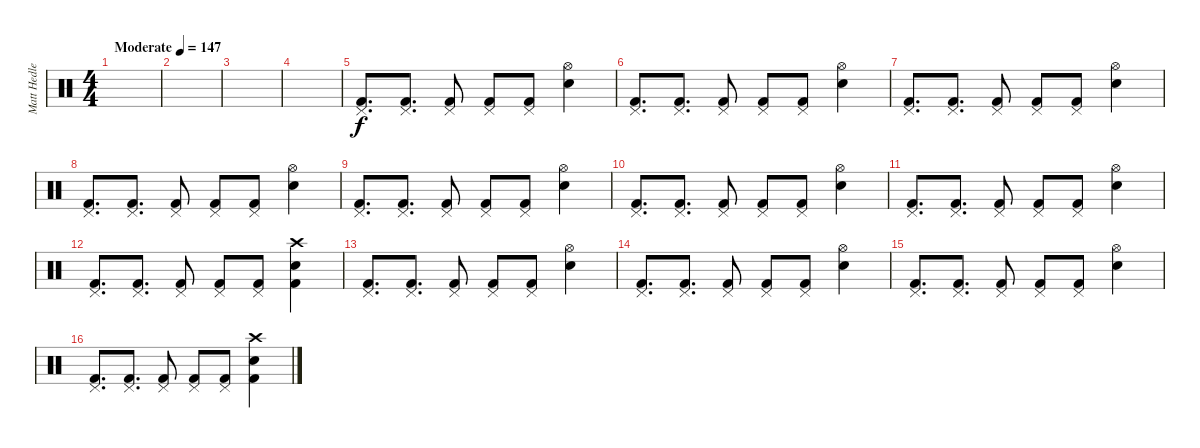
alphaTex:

\track ("Matt Hedlers" "Matt Hedle") {instrument percussion}
\staff {score}
\articulation defaults
\ts (4 4)
\tempo (147 "Moderate")
\clef neutral
\ks c
|
|
|
|
("Pedal Hi-Hat (hit)" "Kick (hit) 2").8{d} ("Pedal Hi-Hat (hit)" "Kick (hit) 2").8{d} ("Pedal Hi-Hat (hit)" "Kick (hit) 2").8 ("Pedal Hi-Hat (hit)" "Kick (hit) 2").8 ("Pedal Hi-Hat (hit)" "Kick (hit) 2").8 ("Hi-Hat (open)" "Snare (hit) 2").4 |
("Pedal Hi-Hat (hit)" "Kick (hit) 2").8{d} ("Pedal Hi-Hat (hit)" "Kick (hit) 2").8{d} ("Pedal Hi-Hat (hit)" "Kick (hit) 2").8 ("Pedal Hi-Hat (hit)" "Kick (hit) 2").8 ("Pedal Hi-Hat (hit)" "Kick (hit) 2").8 ("Hi-Hat (open)" "Snare (hit) 2").4 |
("Pedal Hi-Hat (hit)" "Kick (hit) 2").8{d} ("Pedal Hi-Hat (hit)" "Kick (hit) 2").8{d} ("Pedal Hi-Hat (hit)" "Kick (hit) 2").8 ("Pedal Hi-Hat (hit)" "Kick (hit) 2").8 ("Pedal Hi-Hat (hit)" "Kick (hit) 2").8 ("Hi-Hat (open)" "Snare (hit) 2").4 |
("Pedal Hi-Hat (hit)" "Kick (hit) 2").8{d} ("Pedal Hi-Hat (hit)" "Kick (hit) 2").8{d} ("Pedal Hi-Hat (hit)" "Kick (hit) 2").8 ("Pedal Hi-Hat (hit)" "Kick (hit) 2").8 ("Pedal Hi-Hat (hit)" "Kick (hit) 2").8 ("Hi-Hat (open)" "Snare (hit) 2").4 |
("Pedal Hi-Hat (hit)" "Kick (hit) 2").8{d} ("Pedal Hi-Hat (hit)" "Kick (hit) 2").8{d} ("Pedal Hi-Hat (hit)" "Kick (hit) 2").8 ("Pedal Hi-Hat (hit)" "Kick (hit) 2").8 ("Pedal Hi-Hat (hit)" "Kick (hit) 2").8 ("Hi-Hat (open)" "Snare (hit) 2").4 |
("Pedal Hi-Hat (hit)" "Kick (hit) 2").8{d} ("Pedal Hi-Hat (hit)" "Kick (hit) 2").8{d} ("Pedal Hi-Hat (hit)" "Kick (hit) 2").8 ("Pedal Hi-Hat (hit)" "Kick (hit) 2").8 ("Pedal Hi-Hat (hit)" "Kick (hit) 2").8 ("Hi-Hat (open)" "Snare (hit) 2").4 |
("Pedal Hi-Hat (hit)" "Kick (hit) 2").8{d} ("Pedal Hi-Hat (hit)" "Kick (hit) 2").8{d} ("Pedal Hi-Hat (hit)" "Kick (hit) 2").8 ("Pedal Hi-Hat (hit)" "Kick (hit) 2").8 ("Pedal Hi-Hat (hit)" "Kick (hit) 2").8 ("Hi-Hat (open)" "Snare (hit) 2").4 |
("Pedal Hi-Hat (hit)" "Kick (hit) 2").8{d} ("Pedal Hi-Hat (hit)" "Kick (hit) 2").8{d} ("Pedal Hi-Hat (hit)" "Kick (hit) 2").8 ("Pedal Hi-Hat (hit)" "Kick (hit) 2").8 ("Pedal Hi-Hat (hit)" "Kick (hit) 2").8 ("Crash high (hit)" "Snare (hit) 2" "Kick (hit) 2").4 |
("Pedal Hi-Hat (hit)" "Kick (hit) 2").8{d} ("Pedal Hi-Hat (hit)" "Kick (hit) 2").8{d} ("Pedal Hi-Hat (hit)" "Kick (hit) 2").8 ("Pedal Hi-Hat (hit)" "Kick (hit) 2").8 ("Pedal Hi-Hat (hit)" "Kick (hit) 2").8 ("Hi-Hat (open)" "Snare (hit) 2").4 |
("Pedal Hi-Hat (hit)" "Kick (hit) 2").8{d} ("Pedal Hi-Hat (hit)" "Kick (hit) 2").8{d} ("Pedal Hi-Hat (hit)" "Kick (hit) 2").8 ("Pedal Hi-Hat (hit)" "Kick (hit) 2").8 ("Pedal Hi-Hat (hit)" "Kick (hit) 2").8 ("Hi-Hat (open)" "Snare (hit) 2").4 |
("Pedal Hi-Hat (hit)" "Kick (hit) 2").8{d} ("Pedal Hi-Hat (hit)" "Kick (hit) 2").8{d} ("Pedal Hi-Hat (hit)" "Kick (hit) 2").8 ("Pedal Hi-Hat (hit)" "Kick (hit) 2").8 ("Pedal Hi-Hat (hit)" "Kick (hit) 2").8 ("Hi-Hat (open)" "Snare (hit) 2").4 |
("Pedal Hi-Hat (hit)" "Kick (hit) 2").8{d} ("Pedal Hi-Hat (hit)" "Kick (hit) 2").8{d} ("Pedal Hi-Hat (hit)" "Kick (hit) 2").8 ("Pedal Hi-Hat (hit)" "Kick (hit) 2").8 ("Pedal Hi-Hat (hit)" "Kick (hit) 2").8 ("Crash high (hit)" "Snare (hit) 2" "Kick (hit) 2").4
